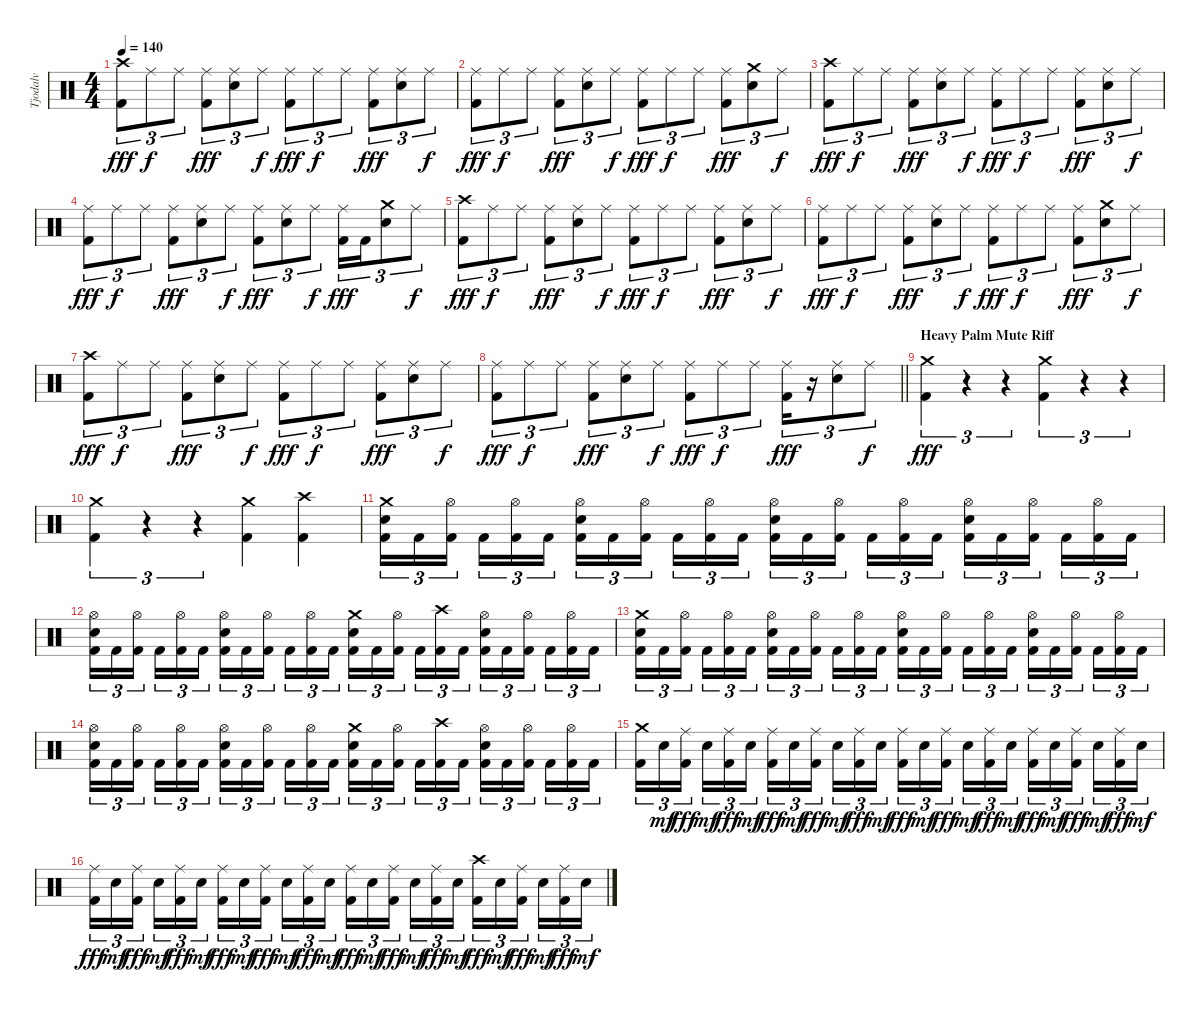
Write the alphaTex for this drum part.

\track ("Tjodalv" "Tjodalv") {instrument percussion}
\staff {score}
\articulation defaults
\ts (4 4)
\tempo 140
\clef neutral
\ks c
("Crash high (hit)" "Kick (hit) 2").8{tu (3 2) dy fff} "Ride (middle)".8{tu (3 2) dy f} "Ride (middle)".8{tu (3 2)} ("Ride (middle)" "Kick (hit) 2").8{tu (3 2) dy fff} ("Ride (middle)" "Snare (hit) 2").8{tu (3 2)} "Ride (middle)".8{tu (3 2) dy f} ("Ride (middle)" "Kick (hit) 2").8{tu (3 2) dy fff} "Ride (middle)".8{tu (3 2) dy f} "Ride (middle)".8{tu (3 2)} ("Ride (middle)" "Kick (hit) 2").8{tu (3 2) dy fff} ("Ride (middle)" "Snare (hit) 2").8{tu (3 2)} "Ride (middle)".8{tu (3 2) dy f} |
("Ride (middle)" "Kick (hit) 2").8{tu (3 2) dy fff} "Ride (middle)".8{tu (3 2) dy f} "Ride (middle)".8{tu (3 2)} ("Ride (middle)" "Kick (hit) 2").8{tu (3 2) dy fff} ("Ride (middle)" "Snare (hit) 2").8{tu (3 2)} "Ride (middle)".8{tu (3 2) dy f} ("Ride (middle)" "Kick (hit) 2").8{tu (3 2) dy fff} "Ride (middle)".8{tu (3 2) dy f} "Ride (middle)".8{tu (3 2)} ("Ride (middle)" "Kick (hit) 2").8{tu (3 2) dy fff} ("Crash medium (hit)" "Snare (hit) 2").8{tu (3 2)} "Ride (middle)".8{tu (3 2) dy f} |
("Crash high (hit)" "Kick (hit) 2").8{tu (3 2) dy fff} "Ride (middle)".8{tu (3 2) dy f} "Ride (middle)".8{tu (3 2)} ("Ride (middle)" "Kick (hit) 2").8{tu (3 2) dy fff} ("Ride (middle)" "Snare (hit) 2").8{tu (3 2)} "Ride (middle)".8{tu (3 2) dy f} ("Ride (middle)" "Kick (hit) 2").8{tu (3 2) dy fff} "Ride (middle)".8{tu (3 2) dy f} "Ride (middle)".8{tu (3 2)} ("Ride (middle)" "Kick (hit) 2").8{tu (3 2) dy fff} ("Ride (middle)" "Snare (hit) 2").8{tu (3 2)} "Ride (middle)".8{tu (3 2) dy f} |
("Ride (middle)" "Kick (hit) 2").8{tu (3 2) dy fff} "Ride (middle)".8{tu (3 2) dy f} "Ride (middle)".8{tu (3 2)} ("Ride (middle)" "Kick (hit) 2").8{tu (3 2) dy fff} ("Ride (middle)" "Snare (hit) 2").8{tu (3 2)} "Ride (middle)".8{tu (3 2) dy f} ("Ride (middle)" "Kick (hit) 2").8{tu (3 2) dy fff} ("Ride (middle)" "Snare (hit) 2").8{tu (3 2)} "Ride (middle)".8{tu (3 2) dy f} ("Ride (middle)" "Kick (hit) 2").16{tu (3 2) dy fff} "Kick (hit) 2".16{tu (3 2)} ("Crash medium (hit)" "Snare (hit) 2").8{tu (3 2)} "Ride (middle)".8{tu (3 2) dy f} |
("Crash high (hit)" "Kick (hit) 2").8{tu (3 2) dy fff} "Ride (middle)".8{tu (3 2) dy f} "Ride (middle)".8{tu (3 2)} ("Ride (middle)" "Kick (hit) 2").8{tu (3 2) dy fff} ("Ride (middle)" "Snare (hit) 2").8{tu (3 2)} "Ride (middle)".8{tu (3 2) dy f} ("Ride (middle)" "Kick (hit) 2").8{tu (3 2) dy fff} "Ride (middle)".8{tu (3 2) dy f} "Ride (middle)".8{tu (3 2)} ("Ride (middle)" "Kick (hit) 2").8{tu (3 2) dy fff} ("Ride (middle)" "Snare (hit) 2").8{tu (3 2)} "Ride (middle)".8{tu (3 2) dy f} |
("Ride (middle)" "Kick (hit) 2").8{tu (3 2) dy fff} "Ride (middle)".8{tu (3 2) dy f} "Ride (middle)".8{tu (3 2)} ("Ride (middle)" "Kick (hit) 2").8{tu (3 2) dy fff} ("Ride (middle)" "Snare (hit) 2").8{tu (3 2)} "Ride (middle)".8{tu (3 2) dy f} ("Ride (middle)" "Kick (hit) 2").8{tu (3 2) dy fff} "Ride (middle)".8{tu (3 2) dy f} "Ride (middle)".8{tu (3 2)} ("Ride (middle)" "Kick (hit) 2").8{tu (3 2) dy fff} ("Crash medium (hit)" "Snare (hit) 2").8{tu (3 2)} "Ride (middle)".8{tu (3 2) dy f} |
("Crash high (hit)" "Kick (hit) 2").8{tu (3 2) dy fff} "Ride (middle)".8{tu (3 2) dy f} "Ride (middle)".8{tu (3 2)} ("Ride (middle)" "Kick (hit) 2").8{tu (3 2) dy fff} ("Ride (middle)" "Snare (hit) 2").8{tu (3 2)} "Ride (middle)".8{tu (3 2) dy f} ("Ride (middle)" "Kick (hit) 2").8{tu (3 2) dy fff} "Ride (middle)".8{tu (3 2) dy f} "Ride (middle)".8{tu (3 2)} ("Ride (middle)" "Kick (hit) 2").8{tu (3 2) dy fff} ("Ride (middle)" "Snare (hit) 2").8{tu (3 2)} "Ride (middle)".8{tu (3 2) dy f} |
\barLineRight lightlight
("Ride (middle)" "Kick (hit) 2").8{tu (3 2) dy fff} "Ride (middle)".8{tu (3 2) dy f} "Ride (middle)".8{tu (3 2)} ("Ride (middle)" "Kick (hit) 2").8{tu (3 2) dy fff} ("Ride (middle)" "Snare (hit) 2").8{tu (3 2)} "Ride (middle)".8{tu (3 2) dy f} ("Ride (middle)" "Kick (hit) 2").8{tu (3 2) dy fff} "Ride (middle)".8{tu (3 2) dy f} "Ride (middle)".8{tu (3 2)} ("Ride (middle)" "Kick (hit) 2").16{tu (3 2) dy fff} r.16{tu (3 2)} ("Ride (middle)" "Snare (hit) 2").8{tu (3 2)} "Ride (middle)".8{tu (3 2) dy f} |
\section ("" "Heavy Palm Mute Riff")
("Crash medium (hit)" "Kick (hit) 2").4{tu (3 2) dy fff volume 16} r.4{tu (3 2) volume 0} r.4{tu (3 2)} ("Crash medium (hit)" "Kick (hit) 2").4{tu (3 2) volume 16} r.4{tu (3 2) volume 0} r.4{tu (3 2)} |
("Crash medium (hit)" "Kick (hit) 2").4{tu (3 2) volume 16} r.4{tu (3 2) volume 0} r.4{tu (3 2)} ("Crash medium (hit)" "Kick (hit) 2").4{volume 16} ("Crash high (hit)" "Kick (hit) 2").4 |
("Crash medium (hit)" "Snare (hit) 2" "Kick (hit) 2").16{tu (3 2)} "Kick (hit) 2".16{tu (3 2)} ("Hi-Hat (open)" "Kick (hit) 2").16{tu (3 2) beam splitsecondary} "Kick (hit) 2".16{tu (3 2)} ("Hi-Hat (open)" "Kick (hit) 2").16{tu (3 2)} "Kick (hit) 2".16{tu (3 2)} ("Hi-Hat (open)" "Snare (hit) 2" "Kick (hit) 2").16{tu (3 2)} "Kick (hit) 2".16{tu (3 2)} ("Hi-Hat (open)" "Kick (hit) 2").16{tu (3 2) beam splitsecondary} "Kick (hit) 2".16{tu (3 2)} ("Hi-Hat (open)" "Kick (hit) 2").16{tu (3 2)} "Kick (hit) 2".16{tu (3 2)} ("Hi-Hat (open)" "Snare (hit) 2" "Kick (hit) 2").16{tu (3 2)} "Kick (hit) 2".16{tu (3 2)} ("Hi-Hat (open)" "Kick (hit) 2").16{tu (3 2) beam splitsecondary} "Kick (hit) 2".16{tu (3 2)} ("Hi-Hat (open)" "Kick (hit) 2").16{tu (3 2)} "Kick (hit) 2".16{tu (3 2)} ("Hi-Hat (open)" "Snare (hit) 2" "Kick (hit) 2").16{tu (3 2)} "Kick (hit) 2".16{tu (3 2)} ("Hi-Hat (open)" "Kick (hit) 2").16{tu (3 2) beam splitsecondary} "Kick (hit) 2".16{tu (3 2)} ("Hi-Hat (open)" "Kick (hit) 2").16{tu (3 2)} "Kick (hit) 2".16{tu (3 2)} |
("Hi-Hat (open)" "Snare (hit) 2" "Kick (hit) 2").16{tu (3 2)} "Kick (hit) 2".16{tu (3 2)} ("Hi-Hat (open)" "Kick (hit) 2").16{tu (3 2) beam splitsecondary} "Kick (hit) 2".16{tu (3 2)} ("Hi-Hat (open)" "Kick (hit) 2").16{tu (3 2)} "Kick (hit) 2".16{tu (3 2)} ("Hi-Hat (open)" "Snare (hit) 2" "Kick (hit) 2").16{tu (3 2)} "Kick (hit) 2".16{tu (3 2)} ("Hi-Hat (open)" "Kick (hit) 2").16{tu (3 2) beam splitsecondary} "Kick (hit) 2".16{tu (3 2)} ("Hi-Hat (open)" "Kick (hit) 2").16{tu (3 2)} "Kick (hit) 2".16{tu (3 2)} ("Crash medium (hit)" "Snare (hit) 2" "Kick (hit) 2").16{tu (3 2)} "Kick (hit) 2".16{tu (3 2)} ("Hi-Hat (open)" "Kick (hit) 2").16{tu (3 2) beam splitsecondary} "Kick (hit) 2".16{tu (3 2)} ("Crash high (hit)" "Kick (hit) 2").16{tu (3 2)} "Kick (hit) 2".16{tu (3 2)} ("Hi-Hat (open)" "Snare (hit) 2" "Kick (hit) 2").16{tu (3 2)} "Kick (hit) 2".16{tu (3 2)} ("Hi-Hat (open)" "Kick (hit) 2").16{tu (3 2) beam splitsecondary} "Kick (hit) 2".16{tu (3 2)} ("Hi-Hat (open)" "Kick (hit) 2").16{tu (3 2)} "Kick (hit) 2".16{tu (3 2)} |
("Crash medium (hit)" "Snare (hit) 2" "Kick (hit) 2").16{tu (3 2)} "Kick (hit) 2".16{tu (3 2)} ("Hi-Hat (open)" "Kick (hit) 2").16{tu (3 2) beam splitsecondary} "Kick (hit) 2".16{tu (3 2)} ("Hi-Hat (open)" "Kick (hit) 2").16{tu (3 2)} "Kick (hit) 2".16{tu (3 2)} ("Hi-Hat (open)" "Snare (hit) 2" "Kick (hit) 2").16{tu (3 2)} "Kick (hit) 2".16{tu (3 2)} ("Hi-Hat (open)" "Kick (hit) 2").16{tu (3 2) beam splitsecondary} "Kick (hit) 2".16{tu (3 2)} ("Hi-Hat (open)" "Kick (hit) 2").16{tu (3 2)} "Kick (hit) 2".16{tu (3 2)} ("Hi-Hat (open)" "Snare (hit) 2" "Kick (hit) 2").16{tu (3 2)} "Kick (hit) 2".16{tu (3 2)} ("Hi-Hat (open)" "Kick (hit) 2").16{tu (3 2) beam splitsecondary} "Kick (hit) 2".16{tu (3 2)} ("Hi-Hat (open)" "Kick (hit) 2").16{tu (3 2)} "Kick (hit) 2".16{tu (3 2)} ("Hi-Hat (open)" "Snare (hit) 2" "Kick (hit) 2").16{tu (3 2)} "Kick (hit) 2".16{tu (3 2)} ("Hi-Hat (open)" "Kick (hit) 2").16{tu (3 2) beam splitsecondary} "Kick (hit) 2".16{tu (3 2)} ("Hi-Hat (open)" "Kick (hit) 2").16{tu (3 2)} "Kick (hit) 2".16{tu (3 2)} |
("Hi-Hat (open)" "Snare (hit) 2" "Kick (hit) 2").16{tu (3 2)} "Kick (hit) 2".16{tu (3 2)} ("Hi-Hat (open)" "Kick (hit) 2").16{tu (3 2) beam splitsecondary} "Kick (hit) 2".16{tu (3 2)} ("Hi-Hat (open)" "Kick (hit) 2").16{tu (3 2)} "Kick (hit) 2".16{tu (3 2)} ("Hi-Hat (open)" "Snare (hit) 2" "Kick (hit) 2").16{tu (3 2)} "Kick (hit) 2".16{tu (3 2)} ("Hi-Hat (open)" "Kick (hit) 2").16{tu (3 2) beam splitsecondary} "Kick (hit) 2".16{tu (3 2)} ("Hi-Hat (open)" "Kick (hit) 2").16{tu (3 2)} "Kick (hit) 2".16{tu (3 2)} ("Crash medium (hit)" "Snare (hit) 2" "Kick (hit) 2").16{tu (3 2)} "Kick (hit) 2".16{tu (3 2)} ("Hi-Hat (open)" "Kick (hit) 2").16{tu (3 2) beam splitsecondary} "Kick (hit) 2".16{tu (3 2)} ("Crash high (hit)" "Kick (hit) 2").16{tu (3 2)} "Kick (hit) 2".16{tu (3 2)} ("Hi-Hat (open)" "Snare (hit) 2" "Kick (hit) 2").16{tu (3 2)} "Kick (hit) 2".16{tu (3 2)} ("Hi-Hat (open)" "Kick (hit) 2").16{tu (3 2) beam splitsecondary} "Kick (hit) 2".16{tu (3 2)} ("Hi-Hat (open)" "Kick (hit) 2").16{tu (3 2)} "Kick (hit) 2".16{tu (3 2)} |
("Crash medium (hit)" "Kick (hit) 2").16{tu (3 2)} "Snare (hit) 2".16{tu (3 2) dy mf} ("Ride (middle)" "Kick (hit) 2").16{tu (3 2) dy fff beam splitsecondary} "Snare (hit) 2".16{tu (3 2) dy mf} ("Ride (middle)" "Kick (hit) 2").16{tu (3 2) dy fff} "Snare (hit) 2".16{tu (3 2) dy mf} ("Ride (middle)" "Kick (hit) 2").16{tu (3 2) dy fff} "Snare (hit) 2".16{tu (3 2) dy mf} ("Ride (middle)" "Kick (hit) 2").16{tu (3 2) dy fff beam splitsecondary} "Snare (hit) 2".16{tu (3 2) dy mf} ("Ride (middle)" "Kick (hit) 2").16{tu (3 2) dy fff} "Snare (hit) 2".16{tu (3 2) dy mf} ("Ride (middle)" "Kick (hit) 2").16{tu (3 2) dy fff} "Snare (hit) 2".16{tu (3 2) dy mf} ("Ride (middle)" "Kick (hit) 2").16{tu (3 2) dy fff beam splitsecondary} "Snare (hit) 2".16{tu (3 2) dy mf} ("Ride (middle)" "Kick (hit) 2").16{tu (3 2) dy fff} "Snare (hit) 2".16{tu (3 2) dy mf} ("Ride (middle)" "Kick (hit) 2").16{tu (3 2) dy fff} "Snare (hit) 2".16{tu (3 2) dy mf} ("Ride (middle)" "Kick (hit) 2").16{tu (3 2) dy fff beam splitsecondary} "Snare (hit) 2".16{tu (3 2) dy mf} ("Ride (middle)" "Kick (hit) 2").16{tu (3 2) dy fff} "Snare (hit) 2".16{tu (3 2) dy mf} |
("Ride (middle)" "Kick (hit) 2").16{tu (3 2) dy fff} "Snare (hit) 2".16{tu (3 2) dy mf} ("Ride (middle)" "Kick (hit) 2").16{tu (3 2) dy fff beam splitsecondary} "Snare (hit) 2".16{tu (3 2) dy mf} ("Ride (middle)" "Kick (hit) 2").16{tu (3 2) dy fff} "Snare (hit) 2".16{tu (3 2) dy mf} ("Ride (middle)" "Kick (hit) 2").16{tu (3 2) dy fff} "Snare (hit) 2".16{tu (3 2) dy mf} ("Ride (middle)" "Kick (hit) 2").16{tu (3 2) dy fff beam splitsecondary} "Snare (hit) 2".16{tu (3 2) dy mf} ("Ride (middle)" "Kick (hit) 2").16{tu (3 2) dy fff} "Snare (hit) 2".16{tu (3 2) dy mf} ("Ride (middle)" "Kick (hit) 2").16{tu (3 2) dy fff} "Snare (hit) 2".16{tu (3 2) dy mf} ("Ride (middle)" "Kick (hit) 2").16{tu (3 2) dy fff beam splitsecondary} "Snare (hit) 2".16{tu (3 2) dy mf} ("Ride (middle)" "Kick (hit) 2").16{tu (3 2) dy fff} "Snare (hit) 2".16{tu (3 2) dy mf} ("Crash high (hit)" "Kick (hit) 2").16{tu (3 2) dy fff} "Snare (hit) 2".16{tu (3 2) dy mf} ("Ride (middle)" "Kick (hit) 2").16{tu (3 2) dy fff beam splitsecondary} "Snare (hit) 2".16{tu (3 2) dy mf} ("Ride (middle)" "Kick (hit) 2").16{tu (3 2) dy fff} "Snare (hit) 2".16{tu (3 2) dy mf}
